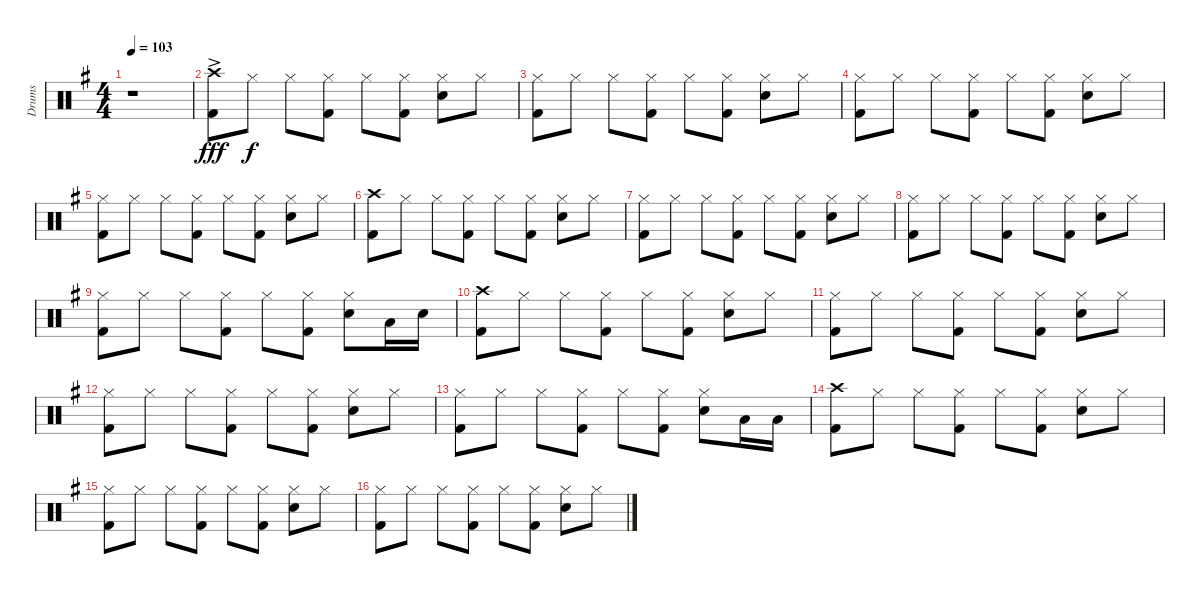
\track ("Drums" "Drums") {instrument percussion}
\staff {score}
\articulation defaults
\ts (4 4)
\tempo 103
\clef neutral
\ks eminor
r.1{dy fff} |
("Crash high (hit)"{ac} "Kick (hit) 2").8 "Hi-Hat (closed)".8{dy f} "Hi-Hat (closed)".8 ("Hi-Hat (closed)" "Kick (hit) 2").8 "Hi-Hat (closed)".8 ("Hi-Hat (closed)" "Kick (hit) 2").8 ("Hi-Hat (closed)" "Snare (hit) 2").8 "Hi-Hat (closed)".8 |
("Hi-Hat (closed)" "Kick (hit) 2").8 "Hi-Hat (closed)".8 "Hi-Hat (closed)".8 ("Hi-Hat (closed)" "Kick (hit) 2").8 "Hi-Hat (closed)".8 ("Hi-Hat (closed)" "Kick (hit) 2").8 ("Hi-Hat (closed)" "Snare (hit) 2").8 "Hi-Hat (closed)".8 |
("Hi-Hat (closed)" "Kick (hit) 2").8 "Hi-Hat (closed)".8 "Hi-Hat (closed)".8 ("Hi-Hat (closed)" "Kick (hit) 2").8 "Hi-Hat (closed)".8 ("Hi-Hat (closed)" "Kick (hit) 2").8 ("Hi-Hat (closed)" "Snare (hit) 2").8 "Hi-Hat (closed)".8 |
("Hi-Hat (closed)" "Kick (hit) 2").8 "Hi-Hat (closed)".8 "Hi-Hat (closed)".8 ("Hi-Hat (closed)" "Kick (hit) 2").8 "Hi-Hat (closed)".8 ("Hi-Hat (closed)" "Kick (hit) 2").8 ("Hi-Hat (closed)" "Snare (hit) 2").8 "Hi-Hat (closed)".8 |
("Crash high (hit)" "Kick (hit) 2").8 "Hi-Hat (closed)".8 "Hi-Hat (closed)".8 ("Hi-Hat (closed)" "Kick (hit) 2").8 "Hi-Hat (closed)".8 ("Hi-Hat (closed)" "Kick (hit) 2").8 ("Hi-Hat (closed)" "Snare (hit) 2").8 "Hi-Hat (closed)".8 |
("Hi-Hat (closed)" "Kick (hit) 2").8 "Hi-Hat (closed)".8 "Hi-Hat (closed)".8 ("Hi-Hat (closed)" "Kick (hit) 2").8 "Hi-Hat (closed)".8 ("Hi-Hat (closed)" "Kick (hit) 2").8 ("Hi-Hat (closed)" "Snare (hit) 2").8 "Hi-Hat (closed)".8 |
("Hi-Hat (closed)" "Kick (hit) 2").8 "Hi-Hat (closed)".8 "Hi-Hat (closed)".8 ("Hi-Hat (closed)" "Kick (hit) 2").8 "Hi-Hat (closed)".8 ("Hi-Hat (closed)" "Kick (hit) 2").8 ("Hi-Hat (closed)" "Snare (hit) 2").8 "Hi-Hat (closed)".8 |
("Hi-Hat (closed)" "Kick (hit) 2").8 "Hi-Hat (closed)".8 "Hi-Hat (closed)".8 ("Hi-Hat (closed)" "Kick (hit) 2").8 "Hi-Hat (closed)".8 ("Hi-Hat (closed)" "Kick (hit) 2").8 ("Hi-Hat (closed)" "Snare (hit) 2").8 "Low Tom (hit)".16 "Snare (hit) 2".16 |
("Crash high (hit)" "Kick (hit) 2").8 "Hi-Hat (closed)".8 "Hi-Hat (closed)".8 ("Hi-Hat (closed)" "Kick (hit) 2").8 "Hi-Hat (closed)".8 ("Hi-Hat (closed)" "Kick (hit) 2").8 ("Hi-Hat (closed)" "Snare (hit) 2").8 "Hi-Hat (closed)".8 |
("Hi-Hat (closed)" "Kick (hit) 2").8 "Hi-Hat (closed)".8 "Hi-Hat (closed)".8 ("Hi-Hat (closed)" "Kick (hit) 2").8 "Hi-Hat (closed)".8 ("Hi-Hat (closed)" "Kick (hit) 2").8 ("Hi-Hat (closed)" "Snare (hit) 2").8 "Hi-Hat (closed)".8 |
("Hi-Hat (closed)" "Kick (hit) 2").8 "Hi-Hat (closed)".8 "Hi-Hat (closed)".8 ("Hi-Hat (closed)" "Kick (hit) 2").8 "Hi-Hat (closed)".8 ("Hi-Hat (closed)" "Kick (hit) 2").8 ("Hi-Hat (closed)" "Snare (hit) 2").8 "Hi-Hat (closed)".8 |
("Hi-Hat (closed)" "Kick (hit) 2").8 "Hi-Hat (closed)".8 "Hi-Hat (closed)".8 ("Hi-Hat (closed)" "Kick (hit) 2").8 "Hi-Hat (closed)".8 ("Hi-Hat (closed)" "Kick (hit) 2").8 ("Hi-Hat (closed)" "Snare (hit) 2").8 "Low Tom (hit)".16 "Low Tom (hit)".16 |
("Crash high (hit)" "Kick (hit) 2").8 "Hi-Hat (closed)".8 "Hi-Hat (closed)".8 ("Hi-Hat (closed)" "Kick (hit) 2").8 "Hi-Hat (closed)".8 ("Hi-Hat (closed)" "Kick (hit) 2").8 ("Hi-Hat (closed)" "Snare (hit) 2").8 "Hi-Hat (closed)".8 |
("Hi-Hat (closed)" "Kick (hit) 2").8 "Hi-Hat (closed)".8 "Hi-Hat (closed)".8 ("Hi-Hat (closed)" "Kick (hit) 2").8 "Hi-Hat (closed)".8 ("Hi-Hat (closed)" "Kick (hit) 2").8 ("Hi-Hat (closed)" "Snare (hit) 2").8 "Hi-Hat (closed)".8 |
("Hi-Hat (closed)" "Kick (hit) 2").8 "Hi-Hat (closed)".8 "Hi-Hat (closed)".8 ("Hi-Hat (closed)" "Kick (hit) 2").8 "Hi-Hat (closed)".8 ("Hi-Hat (closed)" "Kick (hit) 2").8 ("Hi-Hat (closed)" "Snare (hit) 2").8 "Hi-Hat (closed)".8
